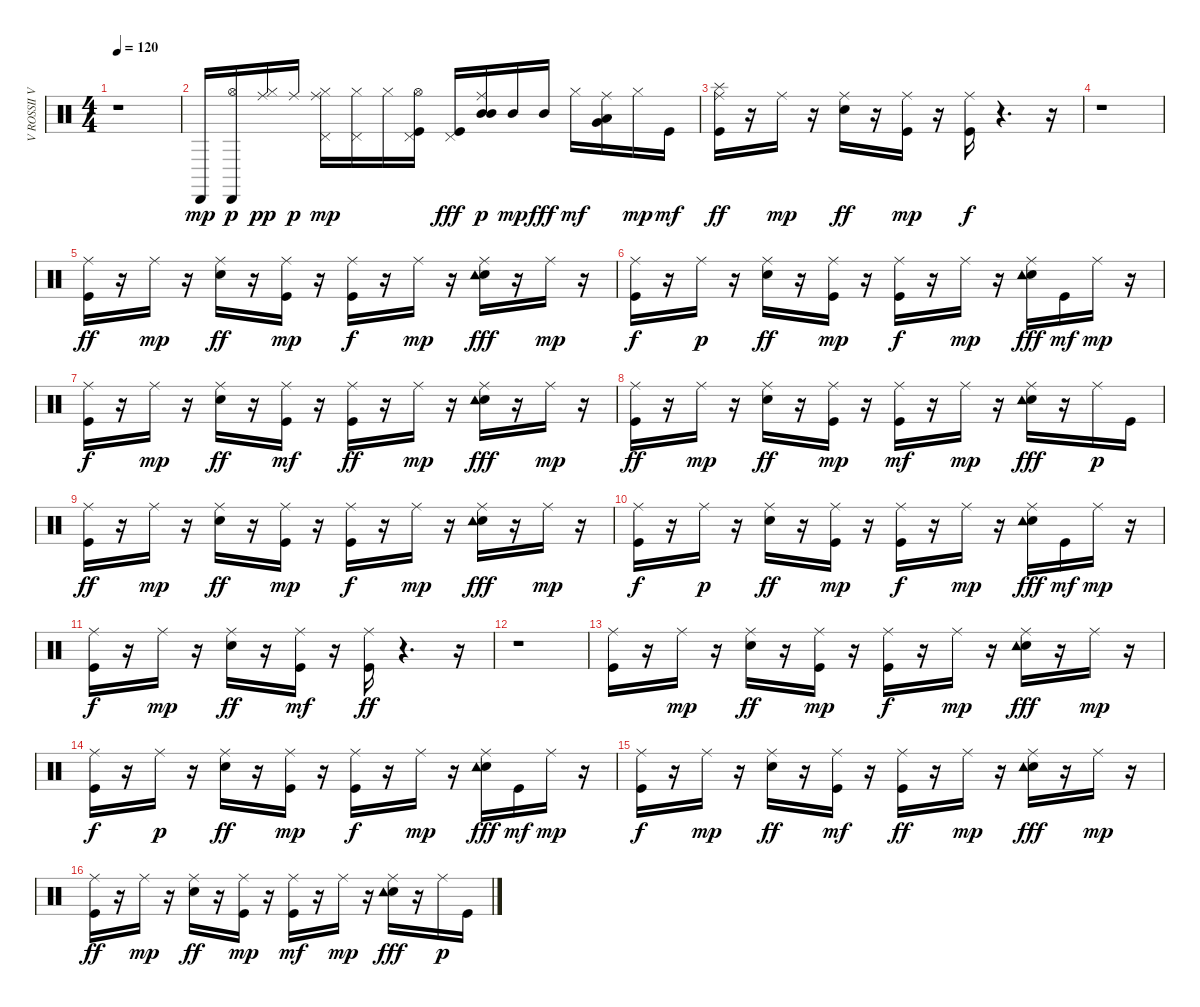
\track ("V ROSSII VECHERA     " "V ROSSII V") {instrument percussion}
\staff {score}
\articulation defaults
\ts (4 4)
\tempo 120
\clef neutral
\ks c
r.1{dy mp} |
"Cabasa (hit)".16 ("Cabasa (hit)" "Hi-Hat (open)").16{dy p} ("Hi-Hat (closed)" "Ride (middle)").16{dy pp} "Ride (middle)".16{dy p} ("Hi-Hat (closed)" "Ride (middle)" "Pedal Hi-Hat (hit)").16{dy mp} ("Hi-Hat (closed)" "Pedal Hi-Hat (hit)").16 "Hi-Hat (closed)".16 ("Pedal Hi-Hat (hit)" "Kick (hit)" "Hi-Hat (open)").16 ("Kick (hit)" "Pedal Hi-Hat (hit)").16{dy fff} ("Ride (middle)" "Mid Tom (hit)" "Mid Tom (hit)").16{dy p} "Mid Tom (hit)".16{dy mp} "Mid Tom (hit)".16{dy fff} "Hi-Hat (closed)".16{dy mf} ("Ride (middle)" "Low Tom (hit)" "Very Low Tom (hit)").16 "Hi-Hat (closed)".16{dy mp} "Kick (hit)".16{dy mf} |
("Splash (hit)" "Ride (middle)" "Kick (hit)").16{dy ff} r.16 "Ride (middle)".16{dy mp} r.16 ("Snare (hit) 2" "Ride (middle)").16{dy ff} r.16 ("Kick (hit)" "Ride (middle)").16{dy mp} r.16 ("Kick (hit)" "Ride (middle)").16{dy f} r.4{d} r.16 |
r.1 |
("Ride (middle)" "Kick (hit)").16{dy ff} r.16 "Ride (middle)".16{dy mp} r.16 ("Snare (hit) 2" "Ride (middle)").16{dy ff} r.16 ("Kick (hit)" "Ride (middle)").16{dy mp} r.16 ("Kick (hit)" "Ride (middle)").16{dy f} r.16 "Ride (middle)".16{dy mp} r.16 ("Snare (hit) 2" "Ride (middle)" "Tambourine (hit)").16{dy fff} r.16 "Ride (middle)".16{dy mp} r.16 |
("Ride (middle)" "Kick (hit)").16{dy f} r.16 "Ride (middle)".16{dy p} r.16 ("Snare (hit) 2" "Ride (middle)").16{dy ff} r.16 ("Ride (middle)" "Kick (hit)").16{dy mp} r.16 ("Ride (middle)" "Kick (hit)").16{dy f} r.16 "Ride (middle)".16{dy mp} r.16 ("Snare (hit) 2" "Ride (middle)" "Tambourine (hit)").16{dy fff} "Kick (hit)".16{dy mf} "Ride (middle)".16{dy mp} r.16 |
("Kick (hit)" "Ride (middle)").16{dy f} r.16 "Ride (middle)".16{dy mp} r.16 ("Snare (hit) 2" "Ride (middle)").16{dy ff} r.16 ("Ride (middle)" "Kick (hit)").16{dy mf} r.16 ("Ride (middle)" "Kick (hit)").16{dy ff} r.16 "Ride (middle)".16{dy mp} r.16 ("Snare (hit) 2" "Ride (middle)" "Tambourine (hit)").16{dy fff} r.16 "Ride (middle)".16{dy mp} r.16 |
("Kick (hit)" "Ride (middle)").16{dy ff} r.16 "Ride (middle)".16{dy mp} r.16 ("Snare (hit) 2" "Ride (middle)").16{dy ff} r.16 ("Kick (hit)" "Ride (middle)").16{dy mp} r.16 ("Kick (hit)" "Ride (middle)").16{dy mf} r.16 "Ride (middle)".16{dy mp} r.16 ("Snare (hit) 2" "Ride (middle)" "Tambourine (hit)").16{dy fff} r.16 "Ride (middle)".16{dy p} "Kick (hit)".16 |
("Ride (middle)" "Kick (hit)").16{dy ff} r.16 "Ride (middle)".16{dy mp} r.16 ("Snare (hit) 2" "Ride (middle)").16{dy ff} r.16 ("Kick (hit)" "Ride (middle)").16{dy mp} r.16 ("Kick (hit)" "Ride (middle)").16{dy f} r.16 "Ride (middle)".16{dy mp} r.16 ("Snare (hit) 2" "Ride (middle)" "Tambourine (hit)").16{dy fff} r.16 "Ride (middle)".16{dy mp} r.16 |
("Ride (middle)" "Kick (hit)").16{dy f} r.16 "Ride (middle)".16{dy p} r.16 ("Snare (hit) 2" "Ride (middle)").16{dy ff} r.16 ("Ride (middle)" "Kick (hit)").16{dy mp} r.16 ("Ride (middle)" "Kick (hit)").16{dy f} r.16 "Ride (middle)".16{dy mp} r.16 ("Snare (hit) 2" "Ride (middle)" "Tambourine (hit)").16{dy fff} "Kick (hit)".16{dy mf} "Ride (middle)".16{dy mp} r.16 |
("Kick (hit)" "Ride (middle)").16{dy f} r.16 "Ride (middle)".16{dy mp} r.16 ("Snare (hit) 2" "Ride (middle)").16{dy ff} r.16 ("Ride (middle)" "Kick (hit)").16{dy mf} r.16 ("Ride (middle)" "Kick (hit)").16{dy ff} r.4{d} r.16 |
r.1 |
("Ride (middle)" "Kick (hit)").16 r.16 "Ride (middle)".16{dy mp} r.16 ("Snare (hit) 2" "Ride (middle)").16{dy ff} r.16 ("Kick (hit)" "Ride (middle)").16{dy mp} r.16 ("Kick (hit)" "Ride (middle)").16{dy f} r.16 "Ride (middle)".16{dy mp} r.16 ("Snare (hit) 2" "Ride (middle)" "Tambourine (hit)").16{dy fff} r.16 "Ride (middle)".16{dy mp} r.16 |
("Ride (middle)" "Kick (hit)").16{dy f} r.16 "Ride (middle)".16{dy p} r.16 ("Snare (hit) 2" "Ride (middle)").16{dy ff} r.16 ("Ride (middle)" "Kick (hit)").16{dy mp} r.16 ("Ride (middle)" "Kick (hit)").16{dy f} r.16 "Ride (middle)".16{dy mp} r.16 ("Snare (hit) 2" "Ride (middle)" "Tambourine (hit)").16{dy fff} "Kick (hit)".16{dy mf} "Ride (middle)".16{dy mp} r.16 |
("Kick (hit)" "Ride (middle)").16{dy f} r.16 "Ride (middle)".16{dy mp} r.16 ("Snare (hit) 2" "Ride (middle)").16{dy ff} r.16 ("Ride (middle)" "Kick (hit)").16{dy mf} r.16 ("Ride (middle)" "Kick (hit)").16{dy ff} r.16 "Ride (middle)".16{dy mp} r.16 ("Snare (hit) 2" "Ride (middle)" "Tambourine (hit)").16{dy fff} r.16 "Ride (middle)".16{dy mp} r.16 |
("Kick (hit)" "Ride (middle)").16{dy ff} r.16 "Ride (middle)".16{dy mp} r.16 ("Snare (hit) 2" "Ride (middle)").16{dy ff} r.16 ("Kick (hit)" "Ride (middle)").16{dy mp} r.16 ("Kick (hit)" "Ride (middle)").16{dy mf} r.16 "Ride (middle)".16{dy mp} r.16 ("Snare (hit) 2" "Ride (middle)" "Tambourine (hit)").16{dy fff} r.16 "Ride (middle)".16{dy p} "Kick (hit)".16
